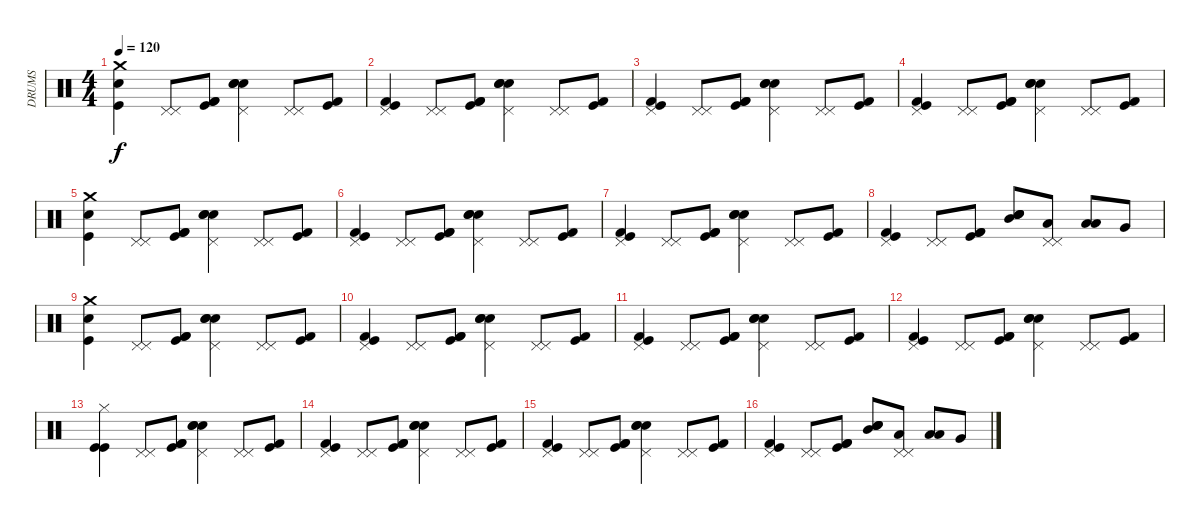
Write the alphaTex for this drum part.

\track ("DRUMS" "DRUMS") {instrument percussion}
\staff {score}
\articulation defaults
\ts (4 4)
\tempo 120
\clef neutral
\ks c
("Crash medium (hit)" "Snare (hit) 2" "Kick (hit)").4{dy f} ("Pedal Hi-Hat (hit)" "Pedal Hi-Hat (hit)").8 ("Kick (hit) 2" "Kick (hit)" "Kick (hit) 2").8 ("Snare (hit) 2" "Snare (hit) 2" "Pedal Hi-Hat (hit)" "Electric Snare (hit)").4 ("Pedal Hi-Hat (hit)" "Pedal Hi-Hat (hit)").8 ("Kick (hit)" "Kick (hit) 2").8 |
("Pedal Hi-Hat (hit)" "Kick (hit) 2" "Kick (hit)").4 ("Pedal Hi-Hat (hit)" "Pedal Hi-Hat (hit)").8 ("Kick (hit) 2" "Kick (hit)" "Kick (hit) 2").8 ("Snare (hit) 2" "Snare (hit) 2" "Pedal Hi-Hat (hit)" "Electric Snare (hit)").4 ("Pedal Hi-Hat (hit)" "Pedal Hi-Hat (hit)").8 ("Kick (hit)" "Kick (hit) 2").8 |
("Pedal Hi-Hat (hit)" "Kick (hit) 2" "Kick (hit)").4 ("Pedal Hi-Hat (hit)" "Pedal Hi-Hat (hit)").8 ("Kick (hit) 2" "Kick (hit)" "Kick (hit) 2").8 ("Snare (hit) 2" "Snare (hit) 2" "Pedal Hi-Hat (hit)" "Electric Snare (hit)").4 ("Pedal Hi-Hat (hit)" "Pedal Hi-Hat (hit)").8 ("Kick (hit)" "Kick (hit) 2").8 |
("Pedal Hi-Hat (hit)" "Kick (hit) 2" "Kick (hit)").4 ("Pedal Hi-Hat (hit)" "Pedal Hi-Hat (hit)").8 ("Kick (hit) 2" "Kick (hit)" "Kick (hit) 2").8 ("Snare (hit) 2" "Snare (hit) 2" "Pedal Hi-Hat (hit)" "Electric Snare (hit)").4 ("Pedal Hi-Hat (hit)" "Pedal Hi-Hat (hit)").8 ("Kick (hit)" "Kick (hit) 2").8 |
("Crash medium (hit)" "Snare (hit) 2" "Kick (hit)").4 ("Pedal Hi-Hat (hit)" "Pedal Hi-Hat (hit)").8 ("Kick (hit) 2" "Kick (hit)" "Kick (hit) 2").8 ("Snare (hit) 2" "Snare (hit) 2" "Pedal Hi-Hat (hit)" "Electric Snare (hit)").4 ("Pedal Hi-Hat (hit)" "Pedal Hi-Hat (hit)").8 ("Kick (hit)" "Kick (hit) 2").8 |
("Pedal Hi-Hat (hit)" "Kick (hit) 2" "Kick (hit)").4 ("Pedal Hi-Hat (hit)" "Pedal Hi-Hat (hit)").8 ("Kick (hit) 2" "Kick (hit)" "Kick (hit) 2").8 ("Snare (hit) 2" "Snare (hit) 2" "Pedal Hi-Hat (hit)" "Electric Snare (hit)").4 ("Pedal Hi-Hat (hit)" "Pedal Hi-Hat (hit)").8 ("Kick (hit)" "Kick (hit) 2").8 |
("Pedal Hi-Hat (hit)" "Kick (hit) 2" "Kick (hit)").4 ("Pedal Hi-Hat (hit)" "Pedal Hi-Hat (hit)").8 ("Kick (hit) 2" "Kick (hit)" "Kick (hit) 2").8 ("Snare (hit) 2" "Snare (hit) 2" "Pedal Hi-Hat (hit)" "Electric Snare (hit)").4 ("Pedal Hi-Hat (hit)" "Pedal Hi-Hat (hit)").8 ("Kick (hit)" "Kick (hit) 2").8 |
("Pedal Hi-Hat (hit)" "Kick (hit) 2" "Kick (hit)").4 ("Pedal Hi-Hat (hit)" "Pedal Hi-Hat (hit)").8 ("Kick (hit) 2" "Kick (hit)" "Kick (hit) 2").8 ("Snare (hit) 2" "Snare (hit) 2" "Mid Tom (hit)" "Electric Snare (hit)").8 ("Pedal Hi-Hat (hit)" "Pedal Hi-Hat (hit)" "Low Tom (hit)").8 ("Low Floor Tom (hit)" "Low Floor Tom (hit)").8 "Very Low Tom (hit)".8 |
("Crash medium (hit)" "Snare (hit) 2" "Kick (hit)").4 ("Pedal Hi-Hat (hit)" "Pedal Hi-Hat (hit)").8 ("Kick (hit) 2" "Kick (hit)" "Kick (hit) 2").8 ("Snare (hit) 2" "Snare (hit) 2" "Pedal Hi-Hat (hit)" "Electric Snare (hit)").4 ("Pedal Hi-Hat (hit)" "Pedal Hi-Hat (hit)").8 ("Kick (hit)" "Kick (hit) 2").8 |
("Pedal Hi-Hat (hit)" "Kick (hit) 2" "Kick (hit)").4 ("Pedal Hi-Hat (hit)" "Pedal Hi-Hat (hit)").8 ("Kick (hit) 2" "Kick (hit)" "Kick (hit) 2").8 ("Snare (hit) 2" "Snare (hit) 2" "Pedal Hi-Hat (hit)" "Electric Snare (hit)").4 ("Pedal Hi-Hat (hit)" "Pedal Hi-Hat (hit)").8 ("Kick (hit)" "Kick (hit) 2").8 |
("Pedal Hi-Hat (hit)" "Kick (hit) 2" "Kick (hit)").4 ("Pedal Hi-Hat (hit)" "Pedal Hi-Hat (hit)").8 ("Kick (hit) 2" "Kick (hit)" "Kick (hit) 2").8 ("Snare (hit) 2" "Snare (hit) 2" "Pedal Hi-Hat (hit)" "Electric Snare (hit)").4 ("Pedal Hi-Hat (hit)" "Pedal Hi-Hat (hit)").8 ("Kick (hit)" "Kick (hit) 2").8 |
("Pedal Hi-Hat (hit)" "Kick (hit) 2" "Kick (hit)").4 ("Pedal Hi-Hat (hit)" "Pedal Hi-Hat (hit)").8 ("Kick (hit) 2" "Kick (hit)" "Kick (hit) 2").8 ("Snare (hit) 2" "Snare (hit) 2" "Pedal Hi-Hat (hit)" "Electric Snare (hit)").4 ("Pedal Hi-Hat (hit)" "Pedal Hi-Hat (hit)").8 ("Kick (hit)" "Kick (hit) 2").8 |
("Hi-Hat (closed)" "Kick (hit)" "Kick (hit)").4 ("Pedal Hi-Hat (hit)" "Pedal Hi-Hat (hit)").8 ("Kick (hit) 2" "Kick (hit)" "Kick (hit) 2").8 ("Snare (hit) 2" "Snare (hit) 2" "Pedal Hi-Hat (hit)" "Electric Snare (hit)").4 ("Pedal Hi-Hat (hit)" "Pedal Hi-Hat (hit)").8 ("Kick (hit)" "Kick (hit) 2").8 |
("Pedal Hi-Hat (hit)" "Kick (hit) 2" "Kick (hit)").4 ("Pedal Hi-Hat (hit)" "Pedal Hi-Hat (hit)").8 ("Kick (hit) 2" "Kick (hit)" "Kick (hit) 2").8 ("Snare (hit) 2" "Snare (hit) 2" "Pedal Hi-Hat (hit)" "Electric Snare (hit)").4 ("Pedal Hi-Hat (hit)" "Pedal Hi-Hat (hit)").8 ("Kick (hit)" "Kick (hit) 2").8 |
("Pedal Hi-Hat (hit)" "Kick (hit) 2" "Kick (hit)").4 ("Pedal Hi-Hat (hit)" "Pedal Hi-Hat (hit)").8 ("Kick (hit) 2" "Kick (hit)" "Kick (hit) 2").8 ("Snare (hit) 2" "Snare (hit) 2" "Pedal Hi-Hat (hit)" "Electric Snare (hit)").4 ("Pedal Hi-Hat (hit)" "Pedal Hi-Hat (hit)").8 ("Kick (hit)" "Kick (hit) 2").8 |
("Pedal Hi-Hat (hit)" "Kick (hit) 2" "Kick (hit)").4 ("Pedal Hi-Hat (hit)" "Pedal Hi-Hat (hit)").8 ("Kick (hit) 2" "Kick (hit)" "Kick (hit) 2").8 ("Snare (hit) 2" "Snare (hit) 2" "Mid Tom (hit)" "Electric Snare (hit)").8 ("Pedal Hi-Hat (hit)" "Pedal Hi-Hat (hit)" "Low Tom (hit)").8 ("Low Floor Tom (hit)" "Low Floor Tom (hit)").8 "Very Low Tom (hit)".8
